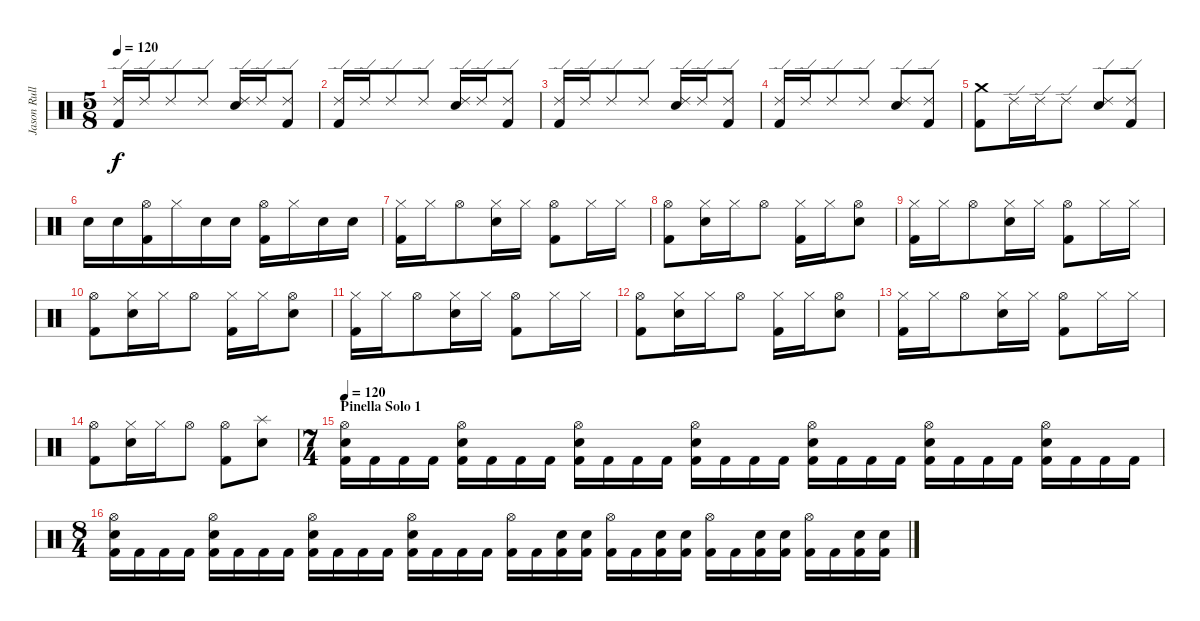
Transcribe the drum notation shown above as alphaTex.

\track ("Jason Rullo" "Jason Rull") {instrument percussion}
\staff {score}
\articulation defaults
\ts (5 8)
\tempo 120
\clef neutral
\ks c
("Kick (hit) 2" "Ride (edge) 2").16{dy f} "Ride (edge) 2".16 "Ride (edge) 2".8 "Ride (edge) 2".8 ("Electric Snare (hit)" "Ride (edge) 2").16 "Ride (edge) 2".16 ("Kick (hit) 2" "Ride (edge) 2").8 |
("Kick (hit) 2" "Ride (edge) 2").16 "Ride (edge) 2".16 "Ride (edge) 2".8 "Ride (edge) 2".8 ("Electric Snare (hit)" "Ride (edge) 2").16 "Ride (edge) 2".16 ("Kick (hit) 2" "Ride (edge) 2").8 |
("Kick (hit) 2" "Ride (edge) 2").16 "Ride (edge) 2".16 "Ride (edge) 2".8 "Ride (edge) 2".8 ("Electric Snare (hit)" "Ride (edge) 2").16 "Ride (edge) 2".16 ("Kick (hit) 2" "Ride (edge) 2").8 |
("Kick (hit) 2" "Ride (edge) 2").16 "Ride (edge) 2".16 "Ride (edge) 2".8 "Ride (edge) 2".8 ("Ride (edge) 2" "Electric Snare (hit)").8 ("Kick (hit) 2" "Ride (edge) 2").8 |
("Kick (hit) 2" "Crash medium (hit)").8 "Ride (edge) 2".16 "Ride (edge) 2".16 "Ride (edge) 2".8 ("Electric Snare (hit)" "Ride (edge) 2").8 ("Kick (hit) 2" "Ride (edge) 2").8 |
"Electric Snare (hit)".16 "Electric Snare (hit)".16 ("Hi-Hat (open)" "Kick (hit) 2").16 "Hi-Hat (closed)".16 "Electric Snare (hit)".16 "Electric Snare (hit)".16 ("Kick (hit) 2" "Hi-Hat (open)").16 "Hi-Hat (closed)".16 "Electric Snare (hit)".16 "Electric Snare (hit)".16 |
("Kick (hit) 2" "Hi-Hat (closed)").16 "Hi-Hat (closed)".16 "Hi-Hat (open)".8 ("Electric Snare (hit)" "Hi-Hat (closed)").16 "Hi-Hat (closed)".16 ("Kick (hit) 2" "Hi-Hat (open)").8 "Hi-Hat (closed)".16 "Hi-Hat (closed)".16 |
("Kick (hit) 2" "Hi-Hat (open)").8 ("Electric Snare (hit)" "Hi-Hat (closed)").16 "Hi-Hat (closed)".16 "Hi-Hat (open)".8 ("Kick (hit) 2" "Hi-Hat (closed)").16 "Hi-Hat (closed)".16 ("Electric Snare (hit)" "Hi-Hat (open)").8 |
("Kick (hit) 2" "Hi-Hat (closed)").16 "Hi-Hat (closed)".16 "Hi-Hat (open)".8 ("Electric Snare (hit)" "Hi-Hat (closed)").16 "Hi-Hat (closed)".16 ("Kick (hit) 2" "Hi-Hat (open)").8 "Hi-Hat (closed)".16 "Hi-Hat (closed)".16 |
("Kick (hit) 2" "Hi-Hat (open)").8 ("Electric Snare (hit)" "Hi-Hat (closed)").16 "Hi-Hat (closed)".16 "Hi-Hat (open)".8 ("Kick (hit) 2" "Hi-Hat (closed)").16 "Hi-Hat (closed)".16 ("Electric Snare (hit)" "Hi-Hat (open)").8 |
("Kick (hit) 2" "Hi-Hat (closed)").16 "Hi-Hat (closed)".16 "Hi-Hat (open)".8 ("Electric Snare (hit)" "Hi-Hat (closed)").16 "Hi-Hat (closed)".16 ("Kick (hit) 2" "Hi-Hat (open)").8 "Hi-Hat (closed)".16 "Hi-Hat (closed)".16 |
("Kick (hit) 2" "Hi-Hat (open)").8 ("Electric Snare (hit)" "Hi-Hat (closed)").16 "Hi-Hat (closed)".16 "Hi-Hat (open)".8 ("Kick (hit) 2" "Hi-Hat (closed)").16 "Hi-Hat (closed)".16 ("Electric Snare (hit)" "Hi-Hat (open)").8 |
("Kick (hit) 2" "Hi-Hat (closed)").16 "Hi-Hat (closed)".16 "Hi-Hat (open)".8 ("Electric Snare (hit)" "Hi-Hat (closed)").16 "Hi-Hat (closed)".16 ("Kick (hit) 2" "Hi-Hat (open)").8 "Hi-Hat (closed)".16 "Hi-Hat (closed)".16 |
("Kick (hit) 2" "Hi-Hat (open)").8 ("Electric Snare (hit)" "Hi-Hat (closed)").16 "Hi-Hat (closed)".16 "Hi-Hat (open)".8 ("Hi-Hat (open)" "Kick (hit) 2").8 ("Splash (hit)" "Electric Snare (hit)").8 |
\ts (7 4)
\section ("" "Pinella Solo 1")
\tempo 120
("Hi-Hat (open)" "Kick (hit) 2" "Electric Snare (hit)").16 "Kick (hit) 2".16 "Kick (hit) 2".16 "Kick (hit) 2".16 ("Hi-Hat (open)" "Kick (hit) 2" "Electric Snare (hit)").16 "Kick (hit) 2".16 "Kick (hit) 2".16 "Kick (hit) 2".16 ("Hi-Hat (open)" "Kick (hit) 2" "Electric Snare (hit)").16 "Kick (hit) 2".16 "Kick (hit) 2".16 "Kick (hit) 2".16 ("Hi-Hat (open)" "Kick (hit) 2" "Electric Snare (hit)").16 "Kick (hit) 2".16 "Kick (hit) 2".16 "Kick (hit) 2".16 ("Hi-Hat (open)" "Kick (hit) 2" "Electric Snare (hit)").16 "Kick (hit) 2".16 "Kick (hit) 2".16 "Kick (hit) 2".16 ("Hi-Hat (open)" "Kick (hit) 2" "Electric Snare (hit)").16 "Kick (hit) 2".16 "Kick (hit) 2".16 "Kick (hit) 2".16 ("Hi-Hat (open)" "Kick (hit) 2" "Electric Snare (hit)").16 "Kick (hit) 2".16 "Kick (hit) 2".16 "Kick (hit) 2".16 |
\ts (8 4)
("Hi-Hat (open)" "Kick (hit) 2" "Electric Snare (hit)").16 "Kick (hit) 2".16 "Kick (hit) 2".16 "Kick (hit) 2".16 ("Hi-Hat (open)" "Kick (hit) 2" "Electric Snare (hit)").16 "Kick (hit) 2".16 "Kick (hit) 2".16 "Kick (hit) 2".16 ("Hi-Hat (open)" "Kick (hit) 2" "Electric Snare (hit)").16 "Kick (hit) 2".16 "Kick (hit) 2".16 "Kick (hit) 2".16 ("Hi-Hat (open)" "Kick (hit) 2" "Electric Snare (hit)").16 "Kick (hit) 2".16 "Kick (hit) 2".16 "Kick (hit) 2".16 ("Hi-Hat (open)" "Kick (hit) 2").16 "Kick (hit) 2".16 ("Electric Snare (hit)" "Kick (hit) 2").16 ("Electric Snare (hit)" "Kick (hit) 2").16 ("Hi-Hat (open)" "Kick (hit) 2").16 "Kick (hit) 2".16 ("Electric Snare (hit)" "Kick (hit) 2").16 ("Electric Snare (hit)" "Kick (hit) 2").16 ("Hi-Hat (open)" "Kick (hit) 2").16 "Kick (hit) 2".16 ("Electric Snare (hit)" "Kick (hit) 2").16 ("Electric Snare (hit)" "Kick (hit) 2").16 ("Hi-Hat (open)" "Kick (hit) 2").16 "Kick (hit) 2".16 ("Electric Snare (hit)" "Kick (hit) 2").16 ("Electric Snare (hit)" "Kick (hit) 2").16
